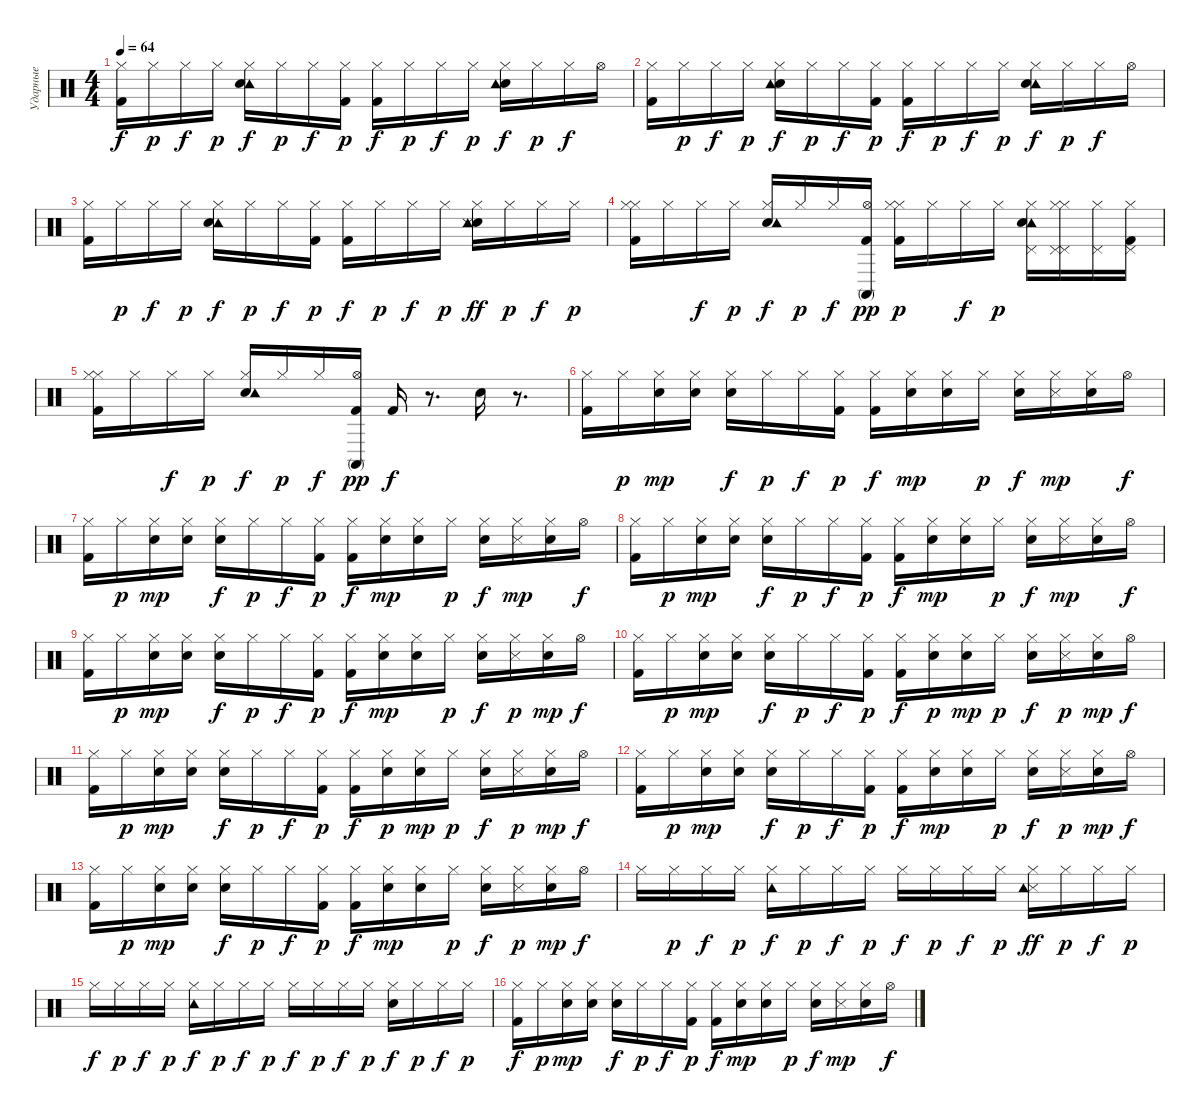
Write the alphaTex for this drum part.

\track ("Ударные" "Ударные") {instrument percussion}
\staff {score}
\articulation defaults
\ts (4 4)
\tempo 64
\clef neutral
\ks c
("Kick (hit) 2" "Hi-Hat (closed)").16{dy f} "Hi-Hat (closed)".16{dy p} "Hi-Hat (closed)".16{dy f} "Hi-Hat (closed)".16{dy p} ("Tambourine (hit)" "Electric Snare (hit)" "Hi-Hat (closed)").16{dy f} "Hi-Hat (closed)".16{dy p} "Hi-Hat (closed)".16{dy f} ("Kick (hit) 2" "Hi-Hat (closed)").16{dy p} ("Kick (hit) 2" "Hi-Hat (closed)").16{dy f} "Hi-Hat (closed)".16{dy p} "Hi-Hat (closed)".16{dy f} "Hi-Hat (closed)".16{dy p} ("Electric Snare (hit)" "Tambourine (hit)" "Hi-Hat (closed)").16{dy f} "Hi-Hat (closed)".16{dy p} "Hi-Hat (closed)".16{dy f} "Hi-Hat (open)".16 |
("Hi-Hat (closed)" "Kick (hit) 2").16 "Hi-Hat (closed)".16{dy p} "Hi-Hat (closed)".16{dy f} "Hi-Hat (closed)".16{dy p} ("Electric Snare (hit)" "Hi-Hat (closed)" "Tambourine (hit)").16{dy f} "Hi-Hat (closed)".16{dy p} "Hi-Hat (closed)".16{dy f} ("Kick (hit) 2" "Hi-Hat (closed)").16{dy p} ("Kick (hit) 2" "Hi-Hat (closed)").16{dy f} "Hi-Hat (closed)".16{dy p} "Hi-Hat (closed)".16{dy f} "Hi-Hat (closed)".16{dy p} ("Hi-Hat (closed)" "Tambourine (hit)" "Electric Snare (hit)").16{dy f} "Hi-Hat (closed)".16{dy p} "Hi-Hat (closed)".16{dy f} "Hi-Hat (open)".16 |
("Hi-Hat (closed)" "Kick (hit) 2").16 "Hi-Hat (closed)".16{dy p} "Hi-Hat (closed)".16{dy f} "Hi-Hat (closed)".16{dy p} ("Hi-Hat (closed)" "Tambourine (hit)" "Electric Snare (hit)").16{dy f} "Hi-Hat (closed)".16{dy p} "Hi-Hat (closed)".16{dy f} ("Kick (hit) 2" "Hi-Hat (closed)").16{dy p} ("Kick (hit) 2" "Hi-Hat (closed)").16{dy f} "Hi-Hat (closed)".16{dy p} "Hi-Hat (closed)".16{dy f} "Hi-Hat (closed)".16{dy p} ("Electric Snare (hit)" "Tambourine (hit)" "Snare (side stick) 3" "Hi-Hat (closed)").16{dy ff} "Hi-Hat (closed)".16{dy p} "Hi-Hat (closed)".16{dy f} "Hi-Hat (closed)".16{dy p} |
("Kick (hit) 2" "Hi-Hat (closed)" "Hi-Hat (closed)").16 "Hi-Hat (closed)".16 "Hi-Hat (closed)".16{dy f} "Hi-Hat (closed)".16{dy p} ("Electric Snare (hit)" "Tambourine (hit)" "Hi-Hat (closed)").16{dy f} "Hi-Hat (closed)".16{dy p} "Hi-Hat (closed)".16{dy f} ("Kick (hit) 2" "Hi-Hat (open)" "Conga high (mute)").16{dy pp} ("Kick (hit) 2" "Hi-Hat (closed)" "Hi-Hat (closed)").16{dy p} "Hi-Hat (closed)".16 "Hi-Hat (closed)".16{dy f} "Hi-Hat (closed)".16{dy p} ("Tambourine (hit)" "Pedal Hi-Hat (hit)" "Electric Snare (hit)" "Hi-Hat (closed)").16 ("Pedal Hi-Hat (hit)" "Hi-Hat (closed)" "Hi-Hat (closed)" "Pedal Hi-Hat (hit)").16 ("Pedal Hi-Hat (hit)" "Hi-Hat (closed)").16 ("Kick (hit) 2" "Pedal Hi-Hat (hit)" "Hi-Hat (closed)").16 |
("Kick (hit) 2" "Hi-Hat (closed)" "Hi-Hat (closed)").16 "Hi-Hat (closed)".16 "Hi-Hat (closed)".16{dy f} "Hi-Hat (closed)".16{dy p} ("Electric Snare (hit)" "Tambourine (hit)" "Hi-Hat (closed)").16{dy f} "Hi-Hat (closed)".16{dy p} "Hi-Hat (closed)".16{dy f} ("Kick (hit) 2" "Hi-Hat (open)" "Conga high (mute)").16{dy pp} "Kick (hit) 2".16{dy f} r.8{d} "Snare (hit) 2".16 r.8{d} |
("Hi-Hat (closed)" "Kick (hit) 2").16 "Hi-Hat (closed)".16{dy p} ("Hi-Hat (closed)" "Metronome (bell)").16{dy mp} ("Hi-Hat (closed)" "Metronome (bell)").16 ("Hi-Hat (closed)" "Electric Snare (hit)").16{dy f} "Hi-Hat (closed)".16{dy p} "Hi-Hat (closed)".16{dy f} ("Hi-Hat (closed)" "Kick (hit) 2").16{dy p} ("Hi-Hat (closed)" "Kick (hit) 2").16{dy f} ("Hi-Hat (closed)" "Metronome (bell)").16{dy mp} ("Metronome (bell)" "Hi-Hat (closed)").16 "Hi-Hat (closed)".16{dy p} ("Electric Snare (hit)" "Hi-Hat (closed)").16{dy f} ("Hi-Hat (closed)" "Snare (side stick) 3").16{dy mp} ("Hi-Hat (closed)" "Hand Clap (hit)").16 "Hi-Hat (open)".16{dy f} |
("Hi-Hat (closed)" "Kick (hit) 2").16 "Hi-Hat (closed)".16{dy p} ("Hi-Hat (closed)" "Metronome (bell)").16{dy mp} ("Hi-Hat (closed)" "Metronome (bell)").16 ("Hi-Hat (closed)" "Electric Snare (hit)").16{dy f} "Hi-Hat (closed)".16{dy p} "Hi-Hat (closed)".16{dy f} ("Hi-Hat (closed)" "Kick (hit) 2").16{dy p} ("Hi-Hat (closed)" "Kick (hit) 2").16{dy f} ("Hi-Hat (closed)" "Metronome (bell)").16{dy mp} ("Metronome (bell)" "Hi-Hat (closed)").16 "Hi-Hat (closed)".16{dy p} ("Electric Snare (hit)" "Hi-Hat (closed)").16{dy f} ("Hi-Hat (closed)" "Snare (side stick) 3").16{dy mp} ("Hi-Hat (closed)" "Hand Clap (hit)").16 "Hi-Hat (open)".16{dy f} |
("Kick (hit) 2" "Hi-Hat (closed)").16 "Hi-Hat (closed)".16{dy p} ("Hi-Hat (closed)" "Metronome (bell)").16{dy mp} ("Hi-Hat (closed)" "Metronome (bell)").16 ("Hi-Hat (closed)" "Electric Snare (hit)").16{dy f} "Hi-Hat (closed)".16{dy p} "Hi-Hat (closed)".16{dy f} ("Hi-Hat (closed)" "Kick (hit) 2").16{dy p} ("Hi-Hat (closed)" "Kick (hit) 2").16{dy f} ("Hi-Hat (closed)" "Metronome (bell)").16{dy mp} ("Metronome (bell)" "Hi-Hat (closed)").16 "Hi-Hat (closed)".16{dy p} ("Electric Snare (hit)" "Hi-Hat (closed)").16{dy f} ("Hi-Hat (closed)" "Snare (side stick) 3").16{dy mp} ("Hi-Hat (closed)" "Hand Clap (hit)").16 "Hi-Hat (open)".16{dy f} |
("Kick (hit) 2" "Hi-Hat (closed)").16 "Hi-Hat (closed)".16{dy p} ("Hi-Hat (closed)" "Metronome (bell)").16{dy mp} ("Hi-Hat (closed)" "Metronome (bell)").16 ("Hi-Hat (closed)" "Electric Snare (hit)").16{dy f} "Hi-Hat (closed)".16{dy p} "Hi-Hat (closed)".16{dy f} ("Kick (hit) 2" "Hi-Hat (closed)").16{dy p} ("Hi-Hat (closed)" "Kick (hit) 2").16{dy f} ("Hi-Hat (closed)" "Metronome (bell)").16{dy mp} ("Metronome (bell)" "Hi-Hat (closed)").16 "Hi-Hat (closed)".16{dy p} ("Electric Snare (hit)" "Hi-Hat (closed)").16{dy f} ("Snare (side stick) 3" "Hi-Hat (closed)").16{dy p} ("Hi-Hat (closed)" "Hand Clap (hit)").16{dy mp} "Hi-Hat (open)".16{dy f} |
("Hi-Hat (closed)" "Kick (hit) 2").16 "Hi-Hat (closed)".16{dy p} ("Hi-Hat (closed)" "Metronome (bell)").16{dy mp} ("Hi-Hat (closed)" "Metronome (bell)").16 ("Hi-Hat (closed)" "Electric Snare (hit)").16{dy f} "Hi-Hat (closed)".16{dy p} "Hi-Hat (closed)".16{dy f} ("Hi-Hat (closed)" "Kick (hit) 2").16{dy p} ("Hi-Hat (closed)" "Kick (hit) 2").16{dy f} ("Metronome (bell)" "Hi-Hat (closed)").16{dy p} ("Metronome (bell)" "Hi-Hat (closed)").16{dy mp} "Hi-Hat (closed)".16{dy p} ("Electric Snare (hit)" "Hi-Hat (closed)").16{dy f} ("Snare (side stick) 3" "Hi-Hat (closed)").16{dy p} ("Hi-Hat (closed)" "Hand Clap (hit)").16{dy mp} "Hi-Hat (open)".16{dy f} |
("Hi-Hat (closed)" "Kick (hit) 2").16 "Hi-Hat (closed)".16{dy p} ("Hi-Hat (closed)" "Metronome (bell)").16{dy mp} ("Hi-Hat (closed)" "Metronome (bell)").16 ("Electric Snare (hit)" "Hi-Hat (closed)").16{dy f} "Hi-Hat (closed)".16{dy p} "Hi-Hat (closed)".16{dy f} ("Kick (hit) 2" "Hi-Hat (closed)").16{dy p} ("Kick (hit) 2" "Hi-Hat (closed)").16{dy f} ("Metronome (bell)" "Hi-Hat (closed)").16{dy p} ("Hi-Hat (closed)" "Metronome (bell)").16{dy mp} "Hi-Hat (closed)".16{dy p} ("Electric Snare (hit)" "Hi-Hat (closed)").16{dy f} ("Snare (side stick) 3" "Hi-Hat (closed)").16{dy p} ("Hand Clap (hit)" "Hi-Hat (closed)").16{dy mp} "Hi-Hat (open)".16{dy f} |
("Kick (hit) 2" "Hi-Hat (closed)").16 "Hi-Hat (closed)".16{dy p} ("Metronome (bell)" "Hi-Hat (closed)").16{dy mp} ("Hi-Hat (closed)" "Metronome (bell)").16 ("Hi-Hat (closed)" "Electric Snare (hit)").16{dy f} "Hi-Hat (closed)".16{dy p} "Hi-Hat (closed)".16{dy f} ("Hi-Hat (closed)" "Kick (hit) 2").16{dy p} ("Hi-Hat (closed)" "Kick (hit) 2").16{dy f} ("Hi-Hat (closed)" "Metronome (bell)").16{dy mp} ("Hi-Hat (closed)" "Metronome (bell)").16 "Hi-Hat (closed)".16{dy p} ("Electric Snare (hit)" "Hi-Hat (closed)").16{dy f} ("Snare (side stick) 3" "Hi-Hat (closed)").16{dy p} ("Hi-Hat (closed)" "Hand Clap (hit)").16{dy mp} "Hi-Hat (open)".16{dy f} |
("Kick (hit) 2" "Hi-Hat (closed)").16 "Hi-Hat (closed)".16{dy p} ("Hi-Hat (closed)" "Metronome (bell)").16{dy mp} ("Hi-Hat (closed)" "Metronome (bell)").16 ("Hi-Hat (closed)" "Electric Snare (hit)").16{dy f} "Hi-Hat (closed)".16{dy p} "Hi-Hat (closed)".16{dy f} ("Kick (hit) 2" "Hi-Hat (closed)").16{dy p} ("Hi-Hat (closed)" "Kick (hit) 2").16{dy f} ("Hi-Hat (closed)" "Metronome (bell)").16{dy mp} ("Hi-Hat (closed)" "Metronome (bell)").16 "Hi-Hat (closed)".16{dy p} ("Electric Snare (hit)" "Hi-Hat (closed)").16{dy f} ("Snare (side stick) 3" "Hi-Hat (closed)").16{dy p} ("Hi-Hat (closed)" "Hand Clap (hit)").16{dy mp} "Hi-Hat (open)".16{dy f} |
"Hi-Hat (closed)".16 "Hi-Hat (closed)".16{dy p} "Hi-Hat (closed)".16{dy f} "Hi-Hat (closed)".16{dy p} ("Hi-Hat (closed)" "Tambourine (hit)").16{dy f} "Hi-Hat (closed)".16{dy p} "Hi-Hat (closed)".16{dy f} "Hi-Hat (closed)".16{dy p} "Hi-Hat (closed)".16{dy f} "Hi-Hat (closed)".16{dy p} "Hi-Hat (closed)".16{dy f} "Hi-Hat (closed)".16{dy p} ("Hi-Hat (closed)" "Snare (side stick) 3" "Tambourine (hit)").16{dy ff} "Hi-Hat (closed)".16{dy p} "Hi-Hat (closed)".16{dy f} "Hi-Hat (closed)".16{dy p} |
"Hi-Hat (closed)".16{dy f} "Hi-Hat (closed)".16{dy p} "Hi-Hat (closed)".16{dy f} "Hi-Hat (closed)".16{dy p} ("Tambourine (hit)" "Hi-Hat (closed)").16{dy f} "Hi-Hat (closed)".16{dy p} "Hi-Hat (closed)".16{dy f} "Hi-Hat (closed)".16{dy p} "Hi-Hat (closed)".16{dy f} "Hi-Hat (closed)".16{dy p} "Hi-Hat (closed)".16{dy f} "Hi-Hat (closed)".16{dy p} ("Hand Clap (hit)" "Hi-Hat (closed)").16{dy f} "Hi-Hat (closed)".16{dy p} "Hi-Hat (closed)".16{dy f} "Hi-Hat (closed)".16{dy p} |
("Hi-Hat (closed)" "Kick (hit) 2").16{dy f} "Hi-Hat (closed)".16{dy p} ("Hi-Hat (closed)" "Metronome (bell)").16{dy mp} ("Hi-Hat (closed)" "Metronome (bell)").16 ("Hi-Hat (closed)" "Electric Snare (hit)").16{dy f} "Hi-Hat (closed)".16{dy p} "Hi-Hat (closed)".16{dy f} ("Hi-Hat (closed)" "Kick (hit) 2").16{dy p} ("Hi-Hat (closed)" "Kick (hit) 2").16{dy f} ("Hi-Hat (closed)" "Metronome (bell)").16{dy mp} ("Metronome (bell)" "Hi-Hat (closed)").16 "Hi-Hat (closed)".16{dy p} ("Electric Snare (hit)" "Hi-Hat (closed)").16{dy f} ("Hi-Hat (closed)" "Snare (side stick) 3").16{dy mp} ("Hi-Hat (closed)" "Hand Clap (hit)").16 "Hi-Hat (open)".16{dy f}
